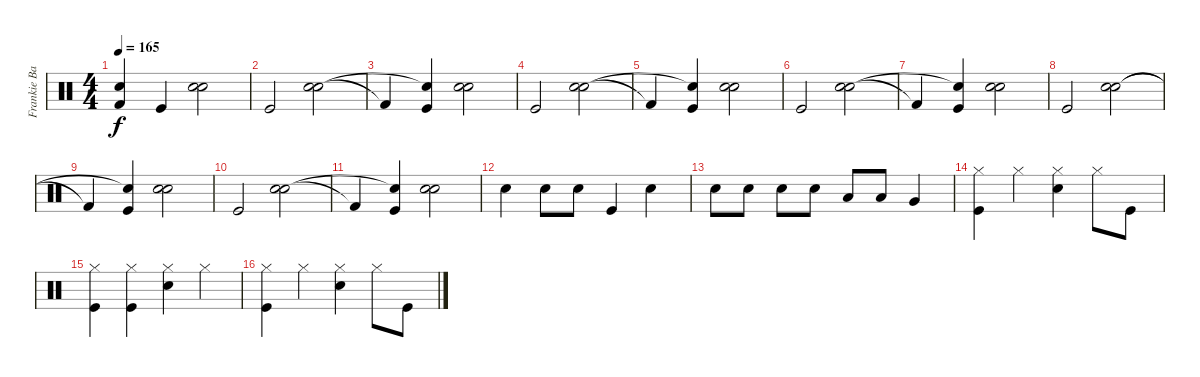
\track ("Frankie Banali/Drums" "Frankie Ba") {instrument percussion}
\staff {score}
\articulation defaults
\ts (4 4)
\tempo 165
\clef neutral
\ks c
("Kick (hit) 2"{t} "Snare (hit)"{t}).4{dy f} "Kick (hit)".4 ("Snare (hit) 2" "Snare (hit) 2").2 |
"Kick (hit)".2 ("Snare (hit) 2" "Snare (hit) 2").2 |
"Kick (hit) 2"{t}.4 ("Kick (hit)" "Snare (hit)"{t}).4 ("Snare (hit) 2" "Snare (hit) 2").2 |
"Kick (hit)".2 ("Snare (hit) 2" "Snare (hit) 2").2 |
"Kick (hit) 2"{t}.4 ("Kick (hit)" "Snare (hit)"{t}).4 ("Snare (hit) 2" "Snare (hit) 2").2 |
"Kick (hit)".2 ("Snare (hit) 2" "Snare (hit) 2").2 |
"Kick (hit) 2"{t}.4 ("Kick (hit)" "Snare (hit)"{t}).4 ("Snare (hit) 2" "Snare (hit) 2").2 |
"Kick (hit)".2 ("Snare (hit) 2" "Snare (hit) 2").2 |
"Kick (hit) 2"{t}.4 ("Kick (hit)" "Snare (hit)"{t}).4 ("Snare (hit) 2" "Snare (hit) 2").2 |
"Kick (hit)".2 ("Snare (hit) 2" "Snare (hit) 2").2 |
"Kick (hit) 2"{t}.4 ("Kick (hit)" "Snare (hit)"{t}).4 ("Snare (hit) 2" "Snare (hit) 2").2 |
"Snare (hit) 2".4 "Snare (hit) 2".8 "Snare (hit) 2".8 "Kick (hit)".4 "Snare (hit) 2".4 |
"Snare (hit) 2".8 "Snare (hit) 2".8 "Snare (hit) 2".8 "Snare (hit) 2".8 "Low Tom (hit)".8 "Low Tom (hit)".8 "Very Low Tom (hit)".4 |
("Kick (hit)" "Hi-Hat (closed)").4 "Hi-Hat (closed)".4 ("Snare (hit) 2" "Hi-Hat (closed)").4 "Hi-Hat (closed)".8 "Kick (hit)".8 |
("Kick (hit)" "Hi-Hat (closed)").4 ("Kick (hit)" "Hi-Hat (closed)").4 ("Snare (hit) 2" "Hi-Hat (closed)").4 "Hi-Hat (closed)".4 |
("Kick (hit)" "Hi-Hat (closed)").4 "Hi-Hat (closed)".4 ("Snare (hit) 2" "Hi-Hat (closed)").4 "Hi-Hat (closed)".8 "Kick (hit)".8
